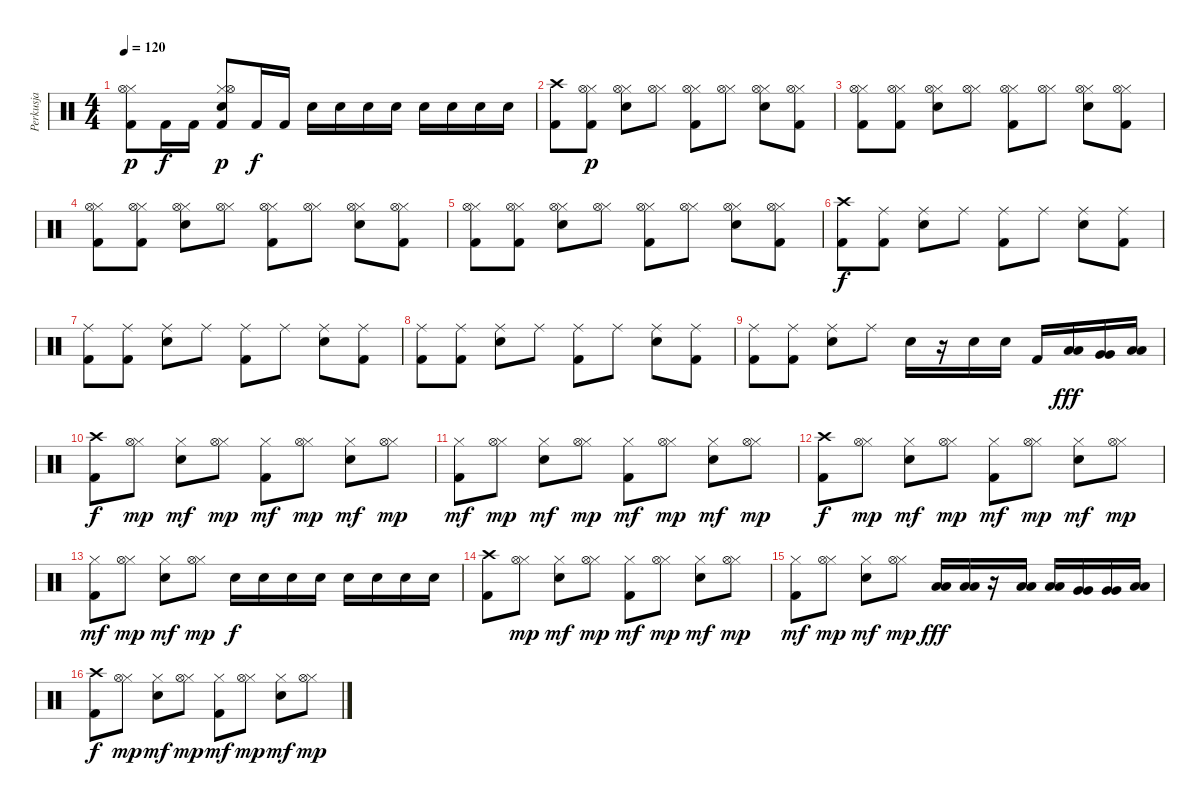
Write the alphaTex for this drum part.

\track ("Perkusja" "Perkusja") {instrument percussion}
\staff {score}
\articulation defaults
\ts (4 4)
\tempo 120
\clef neutral
\ks c
("Kick (hit) 2" "Hi-Hat (closed)" "Hi-Hat (open)").8{dy p} "Kick (hit) 2".16{dy f} "Kick (hit) 2".16 ("Kick (hit) 2" "Electric Snare (hit)" "Hi-Hat (closed)" "Hi-Hat (open)").8{dy p} "Kick (hit) 2".16{dy f} "Kick (hit) 2".16 "Electric Snare (hit)".16 "Electric Snare (hit)".16 "Electric Snare (hit)".16 "Electric Snare (hit)".16 "Electric Snare (hit)".16 "Electric Snare (hit)".16 "Electric Snare (hit)".16 "Electric Snare (hit)".16 |
("Kick (hit) 2" "Crash high (hit)").8 ("Kick (hit) 2" "Hi-Hat (closed)" "Hi-Hat (open)").8{dy p} ("Electric Snare (hit)" "Hi-Hat (closed)" "Hi-Hat (open)").8 ("Hi-Hat (closed)" "Hi-Hat (open)").8 ("Kick (hit) 2" "Hi-Hat (closed)" "Hi-Hat (open)").8 ("Hi-Hat (closed)" "Hi-Hat (open)").8 ("Electric Snare (hit)" "Hi-Hat (closed)" "Hi-Hat (open)").8 ("Kick (hit) 2" "Hi-Hat (closed)" "Hi-Hat (open)").8 |
("Kick (hit) 2" "Hi-Hat (closed)" "Hi-Hat (open)").8 ("Kick (hit) 2" "Hi-Hat (closed)" "Hi-Hat (open)").8 ("Electric Snare (hit)" "Hi-Hat (closed)" "Hi-Hat (open)").8 ("Hi-Hat (closed)" "Hi-Hat (open)").8 ("Kick (hit) 2" "Hi-Hat (closed)" "Hi-Hat (open)").8 ("Hi-Hat (closed)" "Hi-Hat (open)").8 ("Electric Snare (hit)" "Hi-Hat (closed)" "Hi-Hat (open)").8 ("Kick (hit) 2" "Hi-Hat (closed)" "Hi-Hat (open)").8 |
("Kick (hit) 2" "Hi-Hat (closed)" "Hi-Hat (open)").8 ("Kick (hit) 2" "Hi-Hat (closed)" "Hi-Hat (open)").8 ("Electric Snare (hit)" "Hi-Hat (closed)" "Hi-Hat (open)").8 ("Hi-Hat (closed)" "Hi-Hat (open)").8 ("Kick (hit) 2" "Hi-Hat (closed)" "Hi-Hat (open)").8 ("Hi-Hat (closed)" "Hi-Hat (open)").8 ("Electric Snare (hit)" "Hi-Hat (closed)" "Hi-Hat (open)").8 ("Kick (hit) 2" "Hi-Hat (closed)" "Hi-Hat (open)").8 |
("Kick (hit) 2" "Hi-Hat (closed)" "Hi-Hat (open)").8 ("Kick (hit) 2" "Hi-Hat (closed)" "Hi-Hat (open)").8 ("Electric Snare (hit)" "Hi-Hat (closed)" "Hi-Hat (open)").8 ("Hi-Hat (closed)" "Hi-Hat (open)").8 ("Kick (hit) 2" "Hi-Hat (closed)" "Hi-Hat (open)").8 ("Hi-Hat (closed)" "Hi-Hat (open)").8 ("Electric Snare (hit)" "Hi-Hat (closed)" "Hi-Hat (open)").8 ("Kick (hit) 2" "Hi-Hat (closed)" "Hi-Hat (open)").8 |
("Kick (hit) 2" "Crash high (hit)").8{dy f} ("Kick (hit) 2" "Ride (middle)").8 ("Electric Snare (hit)" "Ride (middle)").8 "Ride (middle)".8 ("Kick (hit) 2" "Ride (middle)").8 "Ride (middle)".8 ("Electric Snare (hit)" "Ride (middle)").8 ("Kick (hit) 2" "Ride (middle)").8 |
("Kick (hit) 2" "Ride (middle)").8 ("Kick (hit) 2" "Ride (middle)").8 ("Electric Snare (hit)" "Ride (middle)").8 "Ride (middle)".8 ("Kick (hit) 2" "Ride (middle)").8 "Ride (middle)".8 ("Electric Snare (hit)" "Ride (middle)").8 ("Kick (hit) 2" "Ride (middle)").8 |
("Kick (hit) 2" "Ride (middle)").8 ("Kick (hit) 2" "Ride (middle)").8 ("Electric Snare (hit)" "Ride (middle)").8 "Ride (middle)".8 ("Kick (hit) 2" "Ride (middle)").8 "Ride (middle)".8 ("Electric Snare (hit)" "Ride (middle)").8 ("Kick (hit) 2" "Ride (middle)").8 |
("Kick (hit) 2" "Ride (middle)").8 ("Kick (hit) 2" "Ride (middle)").8 ("Electric Snare (hit)" "Ride (middle)").8 "Ride (middle)".8 "Electric Snare (hit)".16 r.16 "Electric Snare (hit)".16 "Electric Snare (hit)".16 "Kick (hit) 2".16 ("Low Tom (hit)" "Low Tom (hit)").16{dy fff} ("Very Low Tom (hit)" "Very Low Tom (hit)").16 ("Low Floor Tom (hit)" "Low Floor Tom (hit)").16 |
("Kick (hit) 2" "Crash high (hit)").8{dy f} ("Hi-Hat (closed)" "Hi-Hat (open)").8{dy mp} ("Electric Snare (hit)" "Hi-Hat (closed)").8{dy mf} ("Hi-Hat (closed)" "Hi-Hat (open)").8{dy mp} ("Kick (hit) 2" "Hi-Hat (closed)").8{dy mf} ("Hi-Hat (closed)" "Hi-Hat (open)").8{dy mp} ("Electric Snare (hit)" "Hi-Hat (closed)").8{dy mf} ("Hi-Hat (closed)" "Hi-Hat (open)").8{dy mp} |
("Kick (hit) 2" "Hi-Hat (closed)").8{dy mf} ("Hi-Hat (closed)" "Hi-Hat (open)").8{dy mp} ("Electric Snare (hit)" "Hi-Hat (closed)").8{dy mf} ("Hi-Hat (closed)" "Hi-Hat (open)").8{dy mp} ("Kick (hit) 2" "Hi-Hat (closed)").8{dy mf} ("Hi-Hat (closed)" "Hi-Hat (open)").8{dy mp} ("Electric Snare (hit)" "Hi-Hat (closed)").8{dy mf} ("Hi-Hat (closed)" "Hi-Hat (open)").8{dy mp} |
("Kick (hit) 2" "Crash high (hit)").8{dy f} ("Hi-Hat (closed)" "Hi-Hat (open)").8{dy mp} ("Electric Snare (hit)" "Hi-Hat (closed)").8{dy mf} ("Hi-Hat (closed)" "Hi-Hat (open)").8{dy mp} ("Kick (hit) 2" "Hi-Hat (closed)").8{dy mf} ("Hi-Hat (closed)" "Hi-Hat (open)").8{dy mp} ("Electric Snare (hit)" "Hi-Hat (closed)").8{dy mf} ("Hi-Hat (closed)" "Hi-Hat (open)").8{dy mp} |
("Kick (hit) 2" "Hi-Hat (closed)").8{dy mf} ("Hi-Hat (closed)" "Hi-Hat (open)").8{dy mp} ("Electric Snare (hit)" "Hi-Hat (closed)").8{dy mf} ("Hi-Hat (closed)" "Hi-Hat (open)").8{dy mp} "Electric Snare (hit)".16{dy f} "Electric Snare (hit)".16 "Electric Snare (hit)".16 "Electric Snare (hit)".16 "Electric Snare (hit)".16 "Electric Snare (hit)".16 "Electric Snare (hit)".16 "Electric Snare (hit)".16 |
("Kick (hit) 2" "Crash high (hit)").8 ("Hi-Hat (closed)" "Hi-Hat (open)").8{dy mp} ("Electric Snare (hit)" "Hi-Hat (closed)").8{dy mf} ("Hi-Hat (closed)" "Hi-Hat (open)").8{dy mp} ("Kick (hit) 2" "Hi-Hat (closed)").8{dy mf} ("Hi-Hat (closed)" "Hi-Hat (open)").8{dy mp} ("Electric Snare (hit)" "Hi-Hat (closed)").8{dy mf} ("Hi-Hat (closed)" "Hi-Hat (open)").8{dy mp} |
("Kick (hit) 2" "Hi-Hat (closed)").8{dy mf} ("Hi-Hat (closed)" "Hi-Hat (open)").8{dy mp} ("Electric Snare (hit)" "Hi-Hat (closed)").8{dy mf} ("Hi-Hat (closed)" "Hi-Hat (open)").8{dy mp} ("Low Tom (hit)" "Low Tom (hit)").16{dy fff} ("Low Tom (hit)" "Low Tom (hit)").16 r.16 ("Low Tom (hit)" "Low Tom (hit)").16 ("Low Tom (hit)" "Low Tom (hit)").16 ("Very Low Tom (hit)" "Very Low Tom (hit)").16 ("Very Low Tom (hit)" "Very Low Tom (hit)").16 ("Low Floor Tom (hit)" "Low Floor Tom (hit)").16 |
("Kick (hit) 2" "Crash high (hit)").8{dy f} ("Hi-Hat (closed)" "Hi-Hat (open)").8{dy mp} ("Electric Snare (hit)" "Hi-Hat (closed)").8{dy mf} ("Hi-Hat (closed)" "Hi-Hat (open)").8{dy mp} ("Kick (hit) 2" "Hi-Hat (closed)").8{dy mf} ("Hi-Hat (closed)" "Hi-Hat (open)").8{dy mp} ("Electric Snare (hit)" "Hi-Hat (closed)").8{dy mf} ("Hi-Hat (closed)" "Hi-Hat (open)").8{dy mp}
